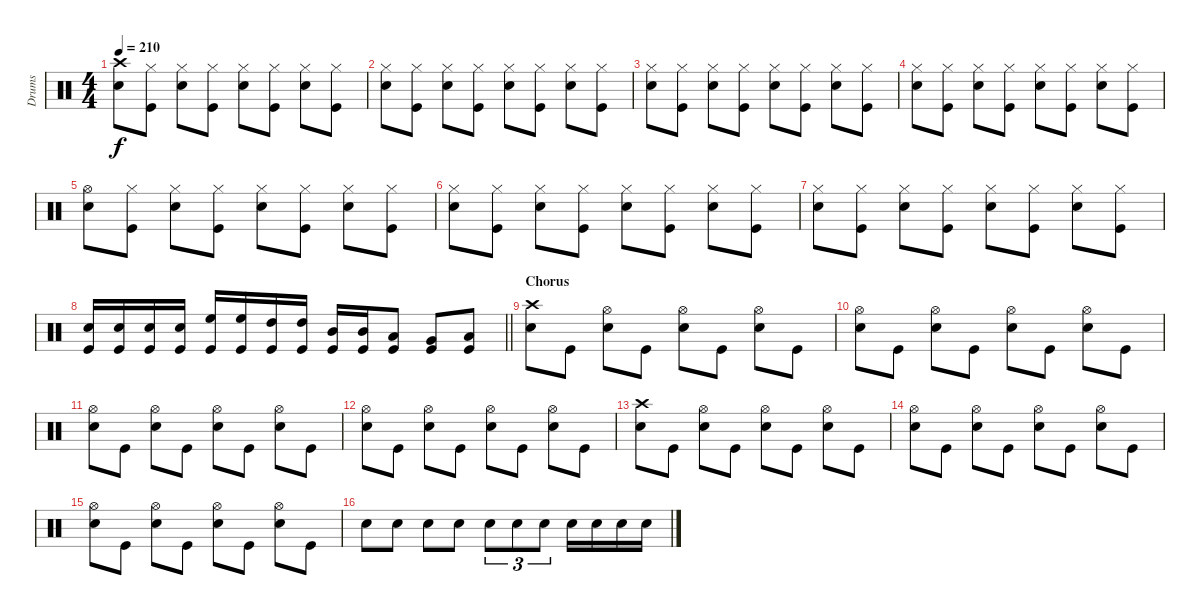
\track ("Drums" "Drums") {instrument percussion}
\staff {score}
\articulation defaults
\ts (4 4)
\tempo 210
\clef neutral
\ks c
("Crash high (hit)" "Snare (hit) 2").8{dy f} ("Hi-Hat (closed)" "Kick (hit)").8 ("Hi-Hat (closed)" "Snare (hit) 2").8 ("Hi-Hat (closed)" "Kick (hit)").8 ("Hi-Hat (closed)" "Snare (hit) 2").8 ("Hi-Hat (closed)" "Kick (hit)").8 ("Hi-Hat (closed)" "Snare (hit) 2").8 ("Hi-Hat (closed)" "Kick (hit)").8 |
("Hi-Hat (closed)" "Snare (hit) 2").8 ("Hi-Hat (closed)" "Kick (hit)").8 ("Hi-Hat (closed)" "Snare (hit) 2").8 ("Hi-Hat (closed)" "Kick (hit)").8 ("Hi-Hat (closed)" "Snare (hit) 2").8 ("Hi-Hat (closed)" "Kick (hit)").8 ("Hi-Hat (closed)" "Snare (hit) 2").8 ("Hi-Hat (closed)" "Kick (hit)").8 |
("Hi-Hat (closed)" "Snare (hit) 2").8 ("Hi-Hat (closed)" "Kick (hit)").8 ("Hi-Hat (closed)" "Snare (hit) 2").8 ("Hi-Hat (closed)" "Kick (hit)").8 ("Hi-Hat (closed)" "Snare (hit) 2").8 ("Hi-Hat (closed)" "Kick (hit)").8 ("Hi-Hat (closed)" "Snare (hit) 2").8 ("Hi-Hat (closed)" "Kick (hit)").8 |
("Hi-Hat (closed)" "Snare (hit) 2").8 ("Hi-Hat (closed)" "Kick (hit)").8 ("Hi-Hat (closed)" "Snare (hit) 2").8 ("Hi-Hat (closed)" "Kick (hit)").8 ("Hi-Hat (closed)" "Snare (hit) 2").8 ("Hi-Hat (closed)" "Kick (hit)").8 ("Hi-Hat (closed)" "Snare (hit) 2").8 ("Hi-Hat (closed)" "Kick (hit)").8 |
("Hi-Hat (open)" "Snare (hit) 2").8 ("Hi-Hat (closed)" "Kick (hit)").8 ("Hi-Hat (closed)" "Snare (hit) 2").8 ("Hi-Hat (closed)" "Kick (hit)").8 ("Hi-Hat (closed)" "Snare (hit) 2").8 ("Hi-Hat (closed)" "Kick (hit)").8 ("Hi-Hat (closed)" "Snare (hit) 2").8 ("Hi-Hat (closed)" "Kick (hit)").8 |
("Hi-Hat (closed)" "Snare (hit) 2").8 ("Hi-Hat (closed)" "Kick (hit)").8 ("Hi-Hat (closed)" "Snare (hit) 2").8 ("Hi-Hat (closed)" "Kick (hit)").8 ("Hi-Hat (closed)" "Snare (hit) 2").8 ("Hi-Hat (closed)" "Kick (hit)").8 ("Hi-Hat (closed)" "Snare (hit) 2").8 ("Hi-Hat (closed)" "Kick (hit)").8 |
("Hi-Hat (closed)" "Snare (hit) 2").8 ("Hi-Hat (closed)" "Kick (hit)").8 ("Hi-Hat (closed)" "Snare (hit) 2").8 ("Hi-Hat (closed)" "Kick (hit)").8 ("Hi-Hat (closed)" "Snare (hit) 2").8 ("Hi-Hat (closed)" "Kick (hit)").8 ("Hi-Hat (closed)" "Snare (hit) 2").8 ("Hi-Hat (closed)" "Kick (hit)").8 |
\barLineRight lightlight
("Snare (hit) 2" "Kick (hit)").16 ("Snare (hit) 2" "Kick (hit)").16 ("Snare (hit) 2" "Kick (hit)").16 ("Snare (hit) 2" "Kick (hit)").16 ("High Floor Tom (hit)" "Kick (hit)").16 ("High Floor Tom (hit)" "Kick (hit)").16 ("High Tom (hit)" "Kick (hit)").16 ("High Tom (hit)" "Kick (hit)").16 ("Mid Tom (hit)" "Kick (hit)").16 ("Mid Tom (hit)" "Kick (hit)").16 ("Low Tom (hit)" "Kick (hit)").8 ("Very Low Tom (hit)" "Kick (hit)").8 ("Low Floor Tom (hit)" "Kick (hit)").8 |
\section ("" "Chorus")
("Crash high (hit)" "Snare (hit) 2").8 "Kick (hit)".8 ("Hi-Hat (open)" "Snare (hit) 2").8 "Kick (hit)".8 ("Hi-Hat (open)" "Snare (hit) 2").8 "Kick (hit)".8 ("Hi-Hat (open)" "Snare (hit) 2").8 "Kick (hit)".8 |
("Hi-Hat (open)" "Snare (hit) 2").8 "Kick (hit)".8 ("Hi-Hat (open)" "Snare (hit) 2").8 "Kick (hit)".8 ("Hi-Hat (open)" "Snare (hit) 2").8 "Kick (hit)".8 ("Hi-Hat (open)" "Snare (hit) 2").8 "Kick (hit)".8 |
("Hi-Hat (open)" "Snare (hit) 2").8 "Kick (hit)".8 ("Hi-Hat (open)" "Snare (hit) 2").8 "Kick (hit)".8 ("Hi-Hat (open)" "Snare (hit) 2").8 "Kick (hit)".8 ("Hi-Hat (open)" "Snare (hit) 2").8 "Kick (hit)".8 |
("Hi-Hat (open)" "Snare (hit) 2").8 "Kick (hit)".8 ("Hi-Hat (open)" "Snare (hit) 2").8 "Kick (hit)".8 ("Hi-Hat (open)" "Snare (hit) 2").8 "Kick (hit)".8 ("Hi-Hat (open)" "Snare (hit) 2").8 "Kick (hit)".8 |
("Crash high (hit)" "Snare (hit) 2").8 "Kick (hit)".8 ("Hi-Hat (open)" "Snare (hit) 2").8 "Kick (hit)".8 ("Hi-Hat (open)" "Snare (hit) 2").8 "Kick (hit)".8 ("Hi-Hat (open)" "Snare (hit) 2").8 "Kick (hit)".8 |
("Hi-Hat (open)" "Snare (hit) 2").8 "Kick (hit)".8 ("Hi-Hat (open)" "Snare (hit) 2").8 "Kick (hit)".8 ("Hi-Hat (open)" "Snare (hit) 2").8 "Kick (hit)".8 ("Hi-Hat (open)" "Snare (hit) 2").8 "Kick (hit)".8 |
("Hi-Hat (open)" "Snare (hit) 2").8 "Kick (hit)".8 ("Hi-Hat (open)" "Snare (hit) 2").8 "Kick (hit)".8 ("Hi-Hat (open)" "Snare (hit) 2").8 "Kick (hit)".8 ("Hi-Hat (open)" "Snare (hit) 2").8 "Kick (hit)".8 |
"Snare (hit) 2".8 "Snare (hit) 2".8 "Snare (hit) 2".8 "Snare (hit) 2".8 "Snare (hit) 2".8{tu (3 2)} "Snare (hit) 2".8{tu (3 2)} "Snare (hit) 2".8{tu (3 2)} "Snare (hit) 2".16 "Snare (hit) 2".16 "Snare (hit) 2".16 "Snare (hit) 2".16
